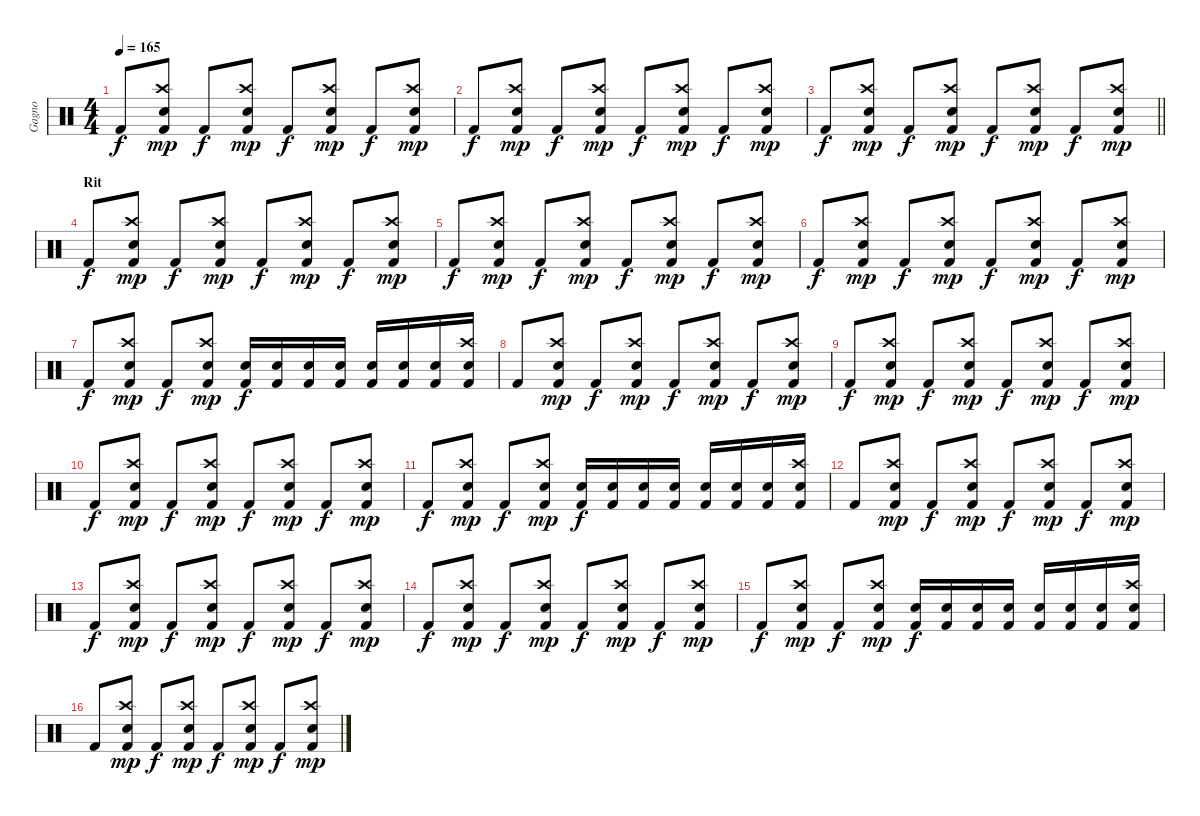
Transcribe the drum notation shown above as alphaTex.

\track ("Gagno" "Gagno") {instrument percussion}
\staff {score}
\articulation defaults
\ts (4 4)
\tempo 165
\clef neutral
\ks c "Kick (hit) 2".8{dy f}
("Crash high (hit)" "Electric Snare (hit)" "Kick (hit) 2").8{dy mp} "Kick (hit) 2".8{dy f} ("Crash high (hit)" "Electric Snare (hit)" "Kick (hit) 2").8{dy mp} "Kick (hit) 2".8{dy f} ("Crash high (hit)" "Electric Snare (hit)" "Kick (hit) 2").8{dy mp} "Kick (hit) 2".8{dy f} ("Crash high (hit)" "Electric Snare (hit)" "Kick (hit) 2").8{dy mp} |
"Kick (hit) 2".8{dy f} ("Crash high (hit)" "Electric Snare (hit)" "Kick (hit) 2").8{dy mp} "Kick (hit) 2".8{dy f} ("Crash high (hit)" "Electric Snare (hit)" "Kick (hit) 2").8{dy mp} "Kick (hit) 2".8{dy f} ("Crash high (hit)" "Electric Snare (hit)" "Kick (hit) 2").8{dy mp} "Kick (hit) 2".8{dy f} ("Crash high (hit)" "Electric Snare (hit)" "Kick (hit) 2").8{dy mp} |
\barLineRight lightlight "Kick (hit) 2".8{dy f}
("Crash high (hit)" "Electric Snare (hit)" "Kick (hit) 2").8{dy mp} "Kick (hit) 2".8{dy f} ("Crash high (hit)" "Electric Snare (hit)" "Kick (hit) 2").8{dy mp} "Kick (hit) 2".8{dy f} ("Crash high (hit)" "Electric Snare (hit)" "Kick (hit) 2").8{dy mp} "Kick (hit) 2".8{dy f} ("Crash high (hit)" "Electric Snare (hit)" "Kick (hit) 2").8{dy mp} |
\section ("" "Rit")
"Kick (hit) 2".8{dy f} ("Crash high (hit)" "Electric Snare (hit)" "Kick (hit) 2").8{dy mp} "Kick (hit) 2".8{dy f} ("Crash high (hit)" "Electric Snare (hit)" "Kick (hit) 2").8{dy mp} "Kick (hit) 2".8{dy f} ("Crash high (hit)" "Electric Snare (hit)" "Kick (hit) 2").8{dy mp} "Kick (hit) 2".8{dy f} ("Crash high (hit)" "Electric Snare (hit)" "Kick (hit) 2").8{dy mp} |
"Kick (hit) 2".8{dy f} ("Crash high (hit)" "Electric Snare (hit)" "Kick (hit) 2").8{dy mp} "Kick (hit) 2".8{dy f} ("Crash high (hit)" "Electric Snare (hit)" "Kick (hit) 2").8{dy mp} "Kick (hit) 2".8{dy f} ("Crash high (hit)" "Electric Snare (hit)" "Kick (hit) 2").8{dy mp} "Kick (hit) 2".8{dy f} ("Crash high (hit)" "Electric Snare (hit)" "Kick (hit) 2").8{dy mp} |
"Kick (hit) 2".8{dy f} ("Crash high (hit)" "Electric Snare (hit)" "Kick (hit) 2").8{dy mp} "Kick (hit) 2".8{dy f} ("Crash high (hit)" "Electric Snare (hit)" "Kick (hit) 2").8{dy mp} "Kick (hit) 2".8{dy f} ("Crash high (hit)" "Electric Snare (hit)" "Kick (hit) 2").8{dy mp} "Kick (hit) 2".8{dy f} ("Crash high (hit)" "Electric Snare (hit)" "Kick (hit) 2").8{dy mp} |
"Kick (hit) 2".8{dy f} ("Crash high (hit)" "Electric Snare (hit)" "Kick (hit) 2").8{dy mp} "Kick (hit) 2".8{dy f} ("Crash high (hit)" "Electric Snare (hit)" "Kick (hit) 2").8{dy mp} ("Electric Snare (hit)" "Kick (hit) 2").16{dy f} ("Electric Snare (hit)" "Kick (hit) 2").16 ("Electric Snare (hit)" "Kick (hit) 2").16 ("Electric Snare (hit)" "Kick (hit) 2").16 ("Electric Snare (hit)" "Kick (hit) 2").16 ("Electric Snare (hit)" "Kick (hit) 2").16 ("Electric Snare (hit)" "Kick (hit) 2").16 ("Crash high (hit)" "Electric Snare (hit)" "Kick (hit) 2").16 |
"Kick (hit) 2".8 ("Crash high (hit)" "Electric Snare (hit)" "Kick (hit) 2").8{dy mp} "Kick (hit) 2".8{dy f} ("Crash high (hit)" "Electric Snare (hit)" "Kick (hit) 2").8{dy mp} "Kick (hit) 2".8{dy f} ("Crash high (hit)" "Electric Snare (hit)" "Kick (hit) 2").8{dy mp} "Kick (hit) 2".8{dy f} ("Crash high (hit)" "Electric Snare (hit)" "Kick (hit) 2").8{dy mp} |
"Kick (hit) 2".8{dy f} ("Crash high (hit)" "Electric Snare (hit)" "Kick (hit) 2").8{dy mp} "Kick (hit) 2".8{dy f} ("Crash high (hit)" "Electric Snare (hit)" "Kick (hit) 2").8{dy mp} "Kick (hit) 2".8{dy f} ("Crash high (hit)" "Electric Snare (hit)" "Kick (hit) 2").8{dy mp} "Kick (hit) 2".8{dy f} ("Crash high (hit)" "Electric Snare (hit)" "Kick (hit) 2").8{dy mp} |
"Kick (hit) 2".8{dy f} ("Crash high (hit)" "Electric Snare (hit)" "Kick (hit) 2").8{dy mp} "Kick (hit) 2".8{dy f} ("Crash high (hit)" "Electric Snare (hit)" "Kick (hit) 2").8{dy mp} "Kick (hit) 2".8{dy f} ("Crash high (hit)" "Electric Snare (hit)" "Kick (hit) 2").8{dy mp} "Kick (hit) 2".8{dy f} ("Crash high (hit)" "Electric Snare (hit)" "Kick (hit) 2").8{dy mp} |
"Kick (hit) 2".8{dy f} ("Crash high (hit)" "Electric Snare (hit)" "Kick (hit) 2").8{dy mp} "Kick (hit) 2".8{dy f} ("Crash high (hit)" "Electric Snare (hit)" "Kick (hit) 2").8{dy mp} ("Electric Snare (hit)" "Kick (hit) 2").16{dy f} ("Electric Snare (hit)" "Kick (hit) 2").16 ("Electric Snare (hit)" "Kick (hit) 2").16 ("Electric Snare (hit)" "Kick (hit) 2").16 ("Electric Snare (hit)" "Kick (hit) 2").16 ("Electric Snare (hit)" "Kick (hit) 2").16 ("Electric Snare (hit)" "Kick (hit) 2").16 ("Crash high (hit)" "Electric Snare (hit)" "Kick (hit) 2").16 |
"Kick (hit) 2".8 ("Crash high (hit)" "Electric Snare (hit)" "Kick (hit) 2").8{dy mp} "Kick (hit) 2".8{dy f} ("Crash high (hit)" "Electric Snare (hit)" "Kick (hit) 2").8{dy mp} "Kick (hit) 2".8{dy f} ("Crash high (hit)" "Electric Snare (hit)" "Kick (hit) 2").8{dy mp} "Kick (hit) 2".8{dy f} ("Crash high (hit)" "Electric Snare (hit)" "Kick (hit) 2").8{dy mp} |
"Kick (hit) 2".8{dy f} ("Crash high (hit)" "Electric Snare (hit)" "Kick (hit) 2").8{dy mp} "Kick (hit) 2".8{dy f} ("Crash high (hit)" "Electric Snare (hit)" "Kick (hit) 2").8{dy mp} "Kick (hit) 2".8{dy f} ("Crash high (hit)" "Electric Snare (hit)" "Kick (hit) 2").8{dy mp} "Kick (hit) 2".8{dy f} ("Crash high (hit)" "Electric Snare (hit)" "Kick (hit) 2").8{dy mp} |
"Kick (hit) 2".8{dy f} ("Crash high (hit)" "Electric Snare (hit)" "Kick (hit) 2").8{dy mp} "Kick (hit) 2".8{dy f} ("Crash high (hit)" "Electric Snare (hit)" "Kick (hit) 2").8{dy mp} "Kick (hit) 2".8{dy f} ("Crash high (hit)" "Electric Snare (hit)" "Kick (hit) 2").8{dy mp} "Kick (hit) 2".8{dy f} ("Crash high (hit)" "Electric Snare (hit)" "Kick (hit) 2").8{dy mp} |
"Kick (hit) 2".8{dy f} ("Crash high (hit)" "Electric Snare (hit)" "Kick (hit) 2").8{dy mp} "Kick (hit) 2".8{dy f} ("Crash high (hit)" "Electric Snare (hit)" "Kick (hit) 2").8{dy mp} ("Electric Snare (hit)" "Kick (hit) 2").16{dy f} ("Electric Snare (hit)" "Kick (hit) 2").16 ("Electric Snare (hit)" "Kick (hit) 2").16 ("Electric Snare (hit)" "Kick (hit) 2").16 ("Electric Snare (hit)" "Kick (hit) 2").16 ("Electric Snare (hit)" "Kick (hit) 2").16 ("Electric Snare (hit)" "Kick (hit) 2").16 ("Crash high (hit)" "Electric Snare (hit)" "Kick (hit) 2").16 |
"Kick (hit) 2".8 ("Crash high (hit)" "Electric Snare (hit)" "Kick (hit) 2").8{dy mp} "Kick (hit) 2".8{dy f} ("Crash high (hit)" "Electric Snare (hit)" "Kick (hit) 2").8{dy mp} "Kick (hit) 2".8{dy f} ("Crash high (hit)" "Electric Snare (hit)" "Kick (hit) 2").8{dy mp} "Kick (hit) 2".8{dy f} ("Crash high (hit)" "Electric Snare (hit)" "Kick (hit) 2").8{dy mp}
